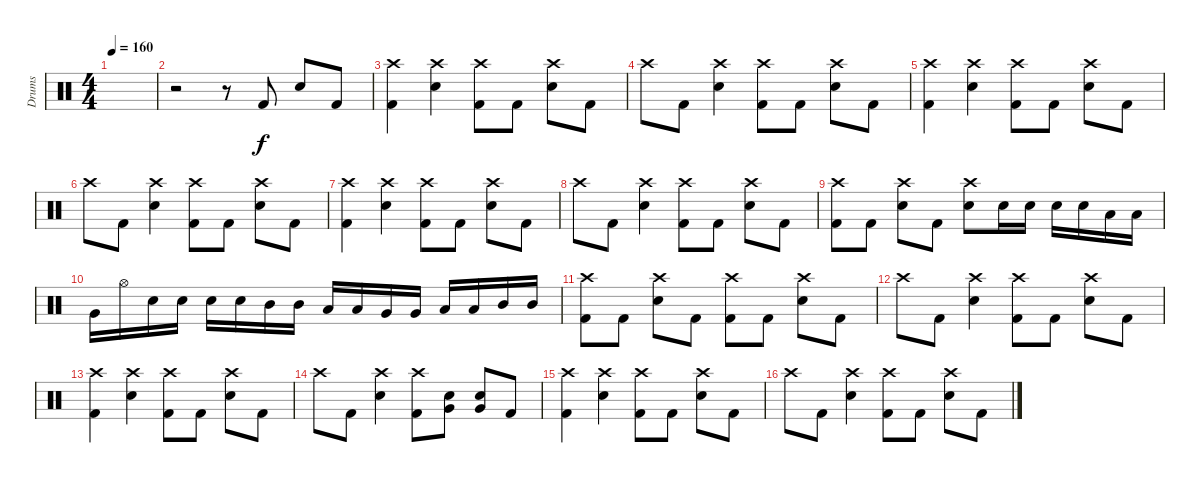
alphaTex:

\track ("Drums" "Drums") {instrument percussion}
\staff {score}
\articulation defaults
\ts (4 4)
\tempo 160
\clef neutral
\ks c
|
r.2 r.8 "Kick (hit) 2".8 "Electric Snare (hit)".8 "Kick (hit) 2".8 |
("Crash high (hit)" "Kick (hit) 2").4 ("Crash high (hit)" "Electric Snare (hit)").4 ("Crash high (hit)" "Kick (hit) 2").8 "Kick (hit) 2".8 ("Crash high (hit)" "Electric Snare (hit)").8 "Kick (hit) 2".8 |
"Crash high (hit)".8 "Kick (hit) 2".8 ("Crash high (hit)" "Electric Snare (hit)").4 ("Crash high (hit)" "Kick (hit) 2").8 "Kick (hit) 2".8 ("Crash high (hit)" "Electric Snare (hit)").8 "Kick (hit) 2".8 |
("Crash high (hit)" "Kick (hit) 2").4 ("Crash high (hit)" "Electric Snare (hit)").4 ("Crash high (hit)" "Kick (hit) 2").8 "Kick (hit) 2".8 ("Crash high (hit)" "Electric Snare (hit)").8 "Kick (hit) 2".8 |
"Crash high (hit)".8 "Kick (hit) 2".8 ("Crash high (hit)" "Electric Snare (hit)").4 ("Crash high (hit)" "Kick (hit) 2").8 "Kick (hit) 2".8 ("Crash high (hit)" "Electric Snare (hit)").8 "Kick (hit) 2".8 |
("Crash high (hit)" "Kick (hit) 2").4 ("Crash high (hit)" "Electric Snare (hit)").4 ("Crash high (hit)" "Kick (hit) 2").8 "Kick (hit) 2".8 ("Crash high (hit)" "Electric Snare (hit)").8 "Kick (hit) 2".8 |
"Crash high (hit)".8 "Kick (hit) 2".8 ("Crash high (hit)" "Electric Snare (hit)").4 ("Crash high (hit)" "Kick (hit) 2").8 "Kick (hit) 2".8 ("Crash high (hit)" "Electric Snare (hit)").8 "Kick (hit) 2".8 |
("Crash high (hit)" "Kick (hit) 2").8 "Kick (hit) 2".8 ("Crash high (hit)" "Electric Snare (hit)").8 "Kick (hit) 2".8 ("Crash high (hit)" "Electric Snare (hit)").8 "Electric Snare (hit)".16 "Electric Snare (hit)".16 "Electric Snare (hit)".16 "Electric Snare (hit)".16 "Low Tom (hit)".16 "Low Tom (hit)".16 |
"Very Low Tom (hit)".16 "Hi-Hat (open)".16 "Electric Snare (hit)".16 "Electric Snare (hit)".16 "Electric Snare (hit)".16 "Electric Snare (hit)".16 "Mid Tom (hit)".16 "Mid Tom (hit)".16 "Low Tom (hit)".16 "Low Tom (hit)".16 "Very Low Tom (hit)".16 "Very Low Tom (hit)".16 "Low Tom (hit)".16 "Low Tom (hit)".16 "Mid Tom (hit)".16 "Mid Tom (hit)".16 |
("Crash high (hit)" "Kick (hit) 2").8 "Kick (hit) 2".8 ("Crash high (hit)" "Electric Snare (hit)").8 "Kick (hit) 2".8 ("Crash high (hit)" "Kick (hit) 2").8 "Kick (hit) 2".8 ("Crash high (hit)" "Electric Snare (hit)").8 "Kick (hit) 2".8 |
"Crash high (hit)".8 "Kick (hit) 2".8 ("Crash high (hit)" "Electric Snare (hit)").4 ("Crash high (hit)" "Kick (hit) 2").8 "Kick (hit) 2".8 ("Crash high (hit)" "Electric Snare (hit)").8 "Kick (hit) 2".8 |
("Crash high (hit)" "Kick (hit) 2").4 ("Crash high (hit)" "Electric Snare (hit)").4 ("Crash high (hit)" "Kick (hit) 2").8 "Kick (hit) 2".8 ("Crash high (hit)" "Electric Snare (hit)").8 "Kick (hit) 2".8 |
"Crash high (hit)".8 "Kick (hit) 2".8 ("Crash high (hit)" "Electric Snare (hit)").4 ("Crash high (hit)" "Kick (hit) 2").8 ("Very Low Tom (hit)" "Electric Snare (hit)").8 ("Very Low Tom (hit)" "Electric Snare (hit)").8 "Kick (hit) 2".8 |
("Crash high (hit)" "Kick (hit) 2").4 ("Crash high (hit)" "Electric Snare (hit)").4 ("Crash high (hit)" "Kick (hit) 2").8 "Kick (hit) 2".8 ("Crash high (hit)" "Electric Snare (hit)").8 "Kick (hit) 2".8 |
"Crash high (hit)".8 "Kick (hit) 2".8 ("Crash high (hit)" "Electric Snare (hit)").4 ("Crash high (hit)" "Kick (hit) 2").8 "Kick (hit) 2".8 ("Crash high (hit)" "Electric Snare (hit)").8 "Kick (hit) 2".8
